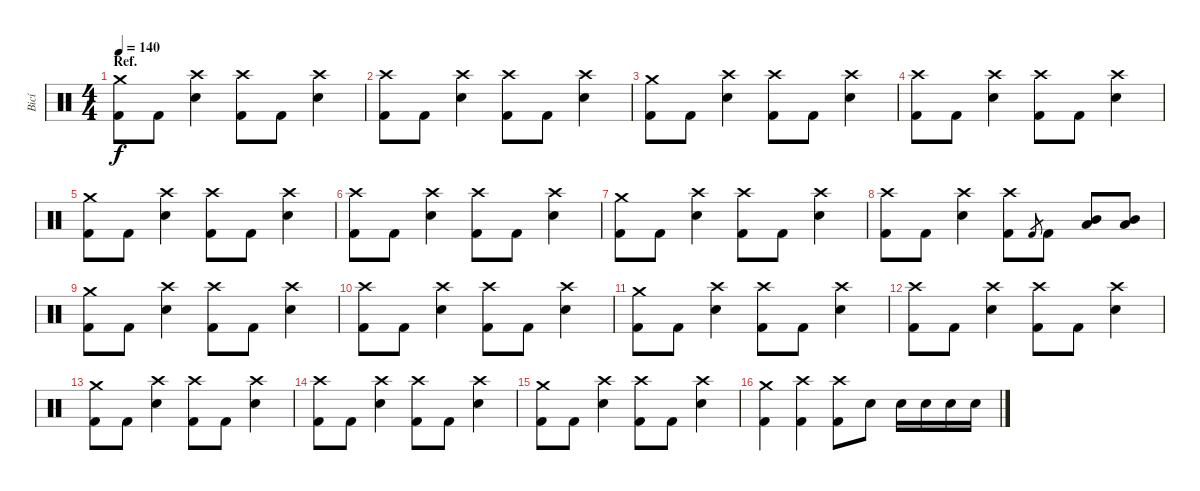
\track ("Bicí" "Bicí") {instrument percussion}
\staff {score}
\articulation defaults
\ts (4 4)
\section ("" "Ref.")
\tempo 140
\clef neutral
\ks c
("Crash medium (hit)" "Kick (hit) 2").8{dy f} "Kick (hit) 2".8 ("Crash high (hit)" "Snare (hit) 2").4 ("Crash high (hit)" "Kick (hit) 2").8 "Kick (hit) 2".8 ("Crash high (hit)" "Snare (hit) 2").4 |
("Crash high (hit)" "Kick (hit) 2").8 "Kick (hit) 2".8 ("Crash high (hit)" "Snare (hit) 2").4 ("Crash high (hit)" "Kick (hit) 2").8 "Kick (hit) 2".8 ("Crash high (hit)" "Snare (hit) 2").4 |
("Crash medium (hit)" "Kick (hit) 2").8 "Kick (hit) 2".8 ("Crash high (hit)" "Snare (hit) 2").4 ("Crash high (hit)" "Kick (hit) 2").8 "Kick (hit) 2".8 ("Crash high (hit)" "Snare (hit) 2").4 |
("Crash high (hit)" "Kick (hit) 2").8 "Kick (hit) 2".8 ("Crash high (hit)" "Snare (hit) 2").4 ("Crash high (hit)" "Kick (hit) 2").8 "Kick (hit) 2".8 ("Crash high (hit)" "Snare (hit) 2").4 |
("Crash medium (hit)" "Kick (hit) 2").8 "Kick (hit) 2".8 ("Crash high (hit)" "Snare (hit) 2").4 ("Crash high (hit)" "Kick (hit) 2").8 "Kick (hit) 2".8 ("Crash high (hit)" "Snare (hit) 2").4 |
("Crash high (hit)" "Kick (hit) 2").8 "Kick (hit) 2".8 ("Crash high (hit)" "Snare (hit) 2").4 ("Crash high (hit)" "Kick (hit) 2").8 "Kick (hit) 2".8 ("Crash high (hit)" "Snare (hit) 2").4 |
("Crash medium (hit)" "Kick (hit) 2").8 "Kick (hit) 2".8 ("Crash high (hit)" "Snare (hit) 2").4 ("Crash high (hit)" "Kick (hit) 2").8 "Kick (hit) 2".8 ("Crash high (hit)" "Snare (hit) 2").4 |
("Crash high (hit)" "Kick (hit) 2").8 "Kick (hit) 2".8 ("Crash high (hit)" "Snare (hit) 2").4 ("Crash high (hit)" "Kick (hit) 2").8 "Kick (hit) 2".8{gr} "Kick (hit) 2".8 ("Low Tom (hit)" "Mid Tom (hit)").8 ("Low Tom (hit)" "Mid Tom (hit)").8 |
("Crash medium (hit)" "Kick (hit) 2").8 "Kick (hit) 2".8 ("Crash high (hit)" "Snare (hit) 2").4 ("Crash high (hit)" "Kick (hit) 2").8 "Kick (hit) 2".8 ("Crash high (hit)" "Snare (hit) 2").4 |
("Crash high (hit)" "Kick (hit) 2").8 "Kick (hit) 2".8 ("Crash high (hit)" "Snare (hit) 2").4 ("Crash high (hit)" "Kick (hit) 2").8 "Kick (hit) 2".8 ("Crash high (hit)" "Snare (hit) 2").4 |
("Crash medium (hit)" "Kick (hit) 2").8 "Kick (hit) 2".8 ("Crash high (hit)" "Snare (hit) 2").4 ("Crash high (hit)" "Kick (hit) 2").8 "Kick (hit) 2".8 ("Crash high (hit)" "Snare (hit) 2").4 |
("Crash high (hit)" "Kick (hit) 2").8 "Kick (hit) 2".8 ("Crash high (hit)" "Snare (hit) 2").4 ("Crash high (hit)" "Kick (hit) 2").8 "Kick (hit) 2".8 ("Crash high (hit)" "Snare (hit) 2").4 |
("Crash medium (hit)" "Kick (hit) 2").8 "Kick (hit) 2".8 ("Crash high (hit)" "Snare (hit) 2").4 ("Crash high (hit)" "Kick (hit) 2").8 "Kick (hit) 2".8 ("Crash high (hit)" "Snare (hit) 2").4 |
("Crash high (hit)" "Kick (hit) 2").8 "Kick (hit) 2".8 ("Crash high (hit)" "Snare (hit) 2").4 ("Crash high (hit)" "Kick (hit) 2").8 "Kick (hit) 2".8 ("Crash high (hit)" "Snare (hit) 2").4 |
("Crash medium (hit)" "Kick (hit) 2").8 "Kick (hit) 2".8 ("Crash high (hit)" "Snare (hit) 2").4 ("Crash high (hit)" "Kick (hit) 2").8 "Kick (hit) 2".8 ("Crash high (hit)" "Snare (hit) 2").4 |
("Crash medium (hit)" "Kick (hit) 2").4 ("Crash high (hit)" "Kick (hit) 2").4 ("Crash high (hit)" "Kick (hit) 2").8 "Snare (hit) 2".8 "Snare (hit) 2".16 "Snare (hit) 2".16 "Snare (hit) 2".16 "Snare (hit) 2".16
